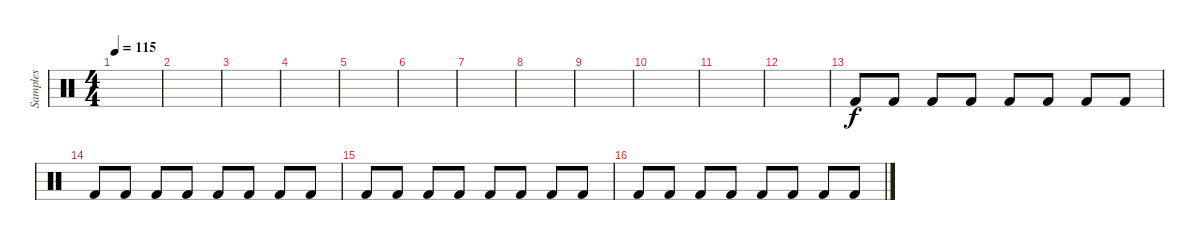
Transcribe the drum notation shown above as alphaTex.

\track ("Samples" "Samples") {instrument percussion}
\staff {score}
\articulation defaults
\ts (4 4)
\tempo 115
\clef neutral
\ks c
|
|
|
|
|
|
|
|
|
|
|
|
"Kick (hit) 2".8 "Kick (hit) 2".8 "Kick (hit) 2".8 "Kick (hit) 2".8 "Kick (hit) 2".8 "Kick (hit) 2".8 "Kick (hit) 2".8 "Kick (hit) 2".8 |
"Kick (hit) 2".8 "Kick (hit) 2".8 "Kick (hit) 2".8 "Kick (hit) 2".8 "Kick (hit) 2".8 "Kick (hit) 2".8 "Kick (hit) 2".8 "Kick (hit) 2".8 |
"Kick (hit) 2".8 "Kick (hit) 2".8 "Kick (hit) 2".8 "Kick (hit) 2".8 "Kick (hit) 2".8 "Kick (hit) 2".8 "Kick (hit) 2".8 "Kick (hit) 2".8 |
"Kick (hit) 2".8 "Kick (hit) 2".8 "Kick (hit) 2".8 "Kick (hit) 2".8 "Kick (hit) 2".8 "Kick (hit) 2".8 "Kick (hit) 2".8 "Kick (hit) 2".8
